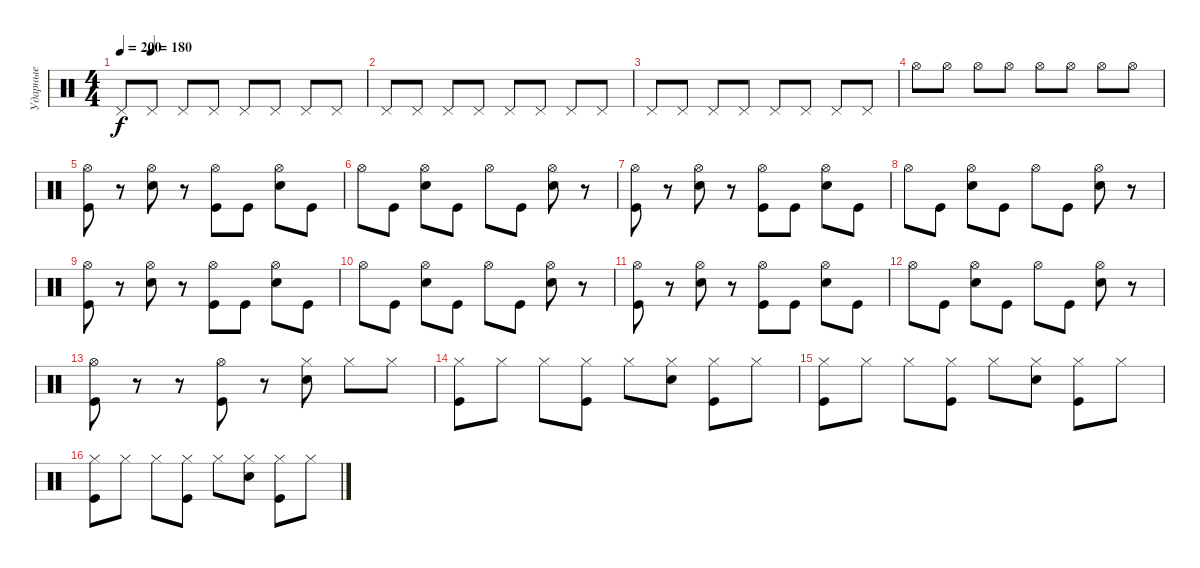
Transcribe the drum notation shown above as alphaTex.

\track ("Ударные" "Ударные") {instrument percussion}
\staff {score}
\articulation defaults
\ts (4 4)
\tempo 200
\tempo (180 0.125)
\clef neutral
\ks c "Pedal Hi-Hat (hit)".8{dy f} "Pedal Hi-Hat (hit)".8 "Pedal Hi-Hat (hit)".8 "Pedal Hi-Hat (hit)".8 "Pedal Hi-Hat (hit)".8 "Pedal Hi-Hat (hit)".8 "Pedal Hi-Hat (hit)".8 "Pedal Hi-Hat (hit)".8
|
"Pedal Hi-Hat (hit)".8 "Pedal Hi-Hat (hit)".8 "Pedal Hi-Hat (hit)".8 "Pedal Hi-Hat (hit)".8 "Pedal Hi-Hat (hit)".8 "Pedal Hi-Hat (hit)".8 "Pedal Hi-Hat (hit)".8 "Pedal Hi-Hat (hit)".8 |
"Pedal Hi-Hat (hit)".8 "Pedal Hi-Hat (hit)".8 "Pedal Hi-Hat (hit)".8 "Pedal Hi-Hat (hit)".8 "Pedal Hi-Hat (hit)".8 "Pedal Hi-Hat (hit)".8 "Pedal Hi-Hat (hit)".8 "Pedal Hi-Hat (hit)".8 |
"Hi-Hat (open)".8 "Hi-Hat (open)".8 "Hi-Hat (open)".8 "Hi-Hat (open)".8 "Hi-Hat (open)".8 "Hi-Hat (open)".8 "Hi-Hat (open)".8 "Hi-Hat (open)".8 |
("Hi-Hat (open)" "Kick (hit)").8 r.8 ("Hi-Hat (open)" "Electric Snare (hit)").8 r.8 ("Hi-Hat (open)" "Kick (hit)").8 "Kick (hit)".8 ("Hi-Hat (open)" "Electric Snare (hit)").8 "Kick (hit)".8 |
"Hi-Hat (open)".8 "Kick (hit)".8 ("Hi-Hat (open)" "Electric Snare (hit)").8 "Kick (hit)".8 "Hi-Hat (open)".8 "Kick (hit)".8 ("Hi-Hat (open)" "Electric Snare (hit)").8 r.8 |
("Hi-Hat (open)" "Kick (hit)").8 r.8 ("Hi-Hat (open)" "Electric Snare (hit)").8 r.8 ("Hi-Hat (open)" "Kick (hit)").8 "Kick (hit)".8 ("Hi-Hat (open)" "Electric Snare (hit)").8 "Kick (hit)".8 |
"Hi-Hat (open)".8 "Kick (hit)".8 ("Hi-Hat (open)" "Electric Snare (hit)").8 "Kick (hit)".8 "Hi-Hat (open)".8 "Kick (hit)".8 ("Hi-Hat (open)" "Electric Snare (hit)").8 r.8 |
("Hi-Hat (open)" "Kick (hit)").8 r.8 ("Hi-Hat (open)" "Electric Snare (hit)").8 r.8 ("Hi-Hat (open)" "Kick (hit)").8 "Kick (hit)".8 ("Hi-Hat (open)" "Electric Snare (hit)").8 "Kick (hit)".8 |
"Hi-Hat (open)".8 "Kick (hit)".8 ("Hi-Hat (open)" "Electric Snare (hit)").8 "Kick (hit)".8 "Hi-Hat (open)".8 "Kick (hit)".8 ("Hi-Hat (open)" "Electric Snare (hit)").8 r.8 |
("Hi-Hat (open)" "Kick (hit)").8 r.8 ("Hi-Hat (open)" "Electric Snare (hit)").8 r.8 ("Hi-Hat (open)" "Kick (hit)").8 "Kick (hit)".8 ("Hi-Hat (open)" "Electric Snare (hit)").8 "Kick (hit)".8 |
"Hi-Hat (open)".8 "Kick (hit)".8 ("Hi-Hat (open)" "Electric Snare (hit)").8 "Kick (hit)".8 "Hi-Hat (open)".8 "Kick (hit)".8 ("Hi-Hat (open)" "Electric Snare (hit)").8 r.8 |
("Hi-Hat (open)" "Kick (hit)").8 r.8 r.8 ("Hi-Hat (open)" "Kick (hit)").8 r.8 ("Hi-Hat (closed)" "Electric Snare (hit)").8 "Hi-Hat (closed)".8 "Hi-Hat (closed)".8 |
("Hi-Hat (closed)" "Kick (hit)").8 "Hi-Hat (closed)".8 "Hi-Hat (closed)".8 ("Hi-Hat (closed)" "Kick (hit)").8 "Hi-Hat (closed)".8 ("Hi-Hat (closed)" "Electric Snare (hit)").8 ("Hi-Hat (closed)" "Kick (hit)").8 "Hi-Hat (closed)".8 |
("Hi-Hat (closed)" "Kick (hit)").8 "Hi-Hat (closed)".8 "Hi-Hat (closed)".8 ("Hi-Hat (closed)" "Kick (hit)").8 "Hi-Hat (closed)".8 ("Hi-Hat (closed)" "Electric Snare (hit)").8 ("Hi-Hat (closed)" "Kick (hit)").8 "Hi-Hat (closed)".8 |
("Hi-Hat (closed)" "Kick (hit)").8 "Hi-Hat (closed)".8 "Hi-Hat (closed)".8 ("Hi-Hat (closed)" "Kick (hit)").8 "Hi-Hat (closed)".8 ("Hi-Hat (closed)" "Electric Snare (hit)").8 ("Hi-Hat (closed)" "Kick (hit)").8 "Hi-Hat (closed)".8
